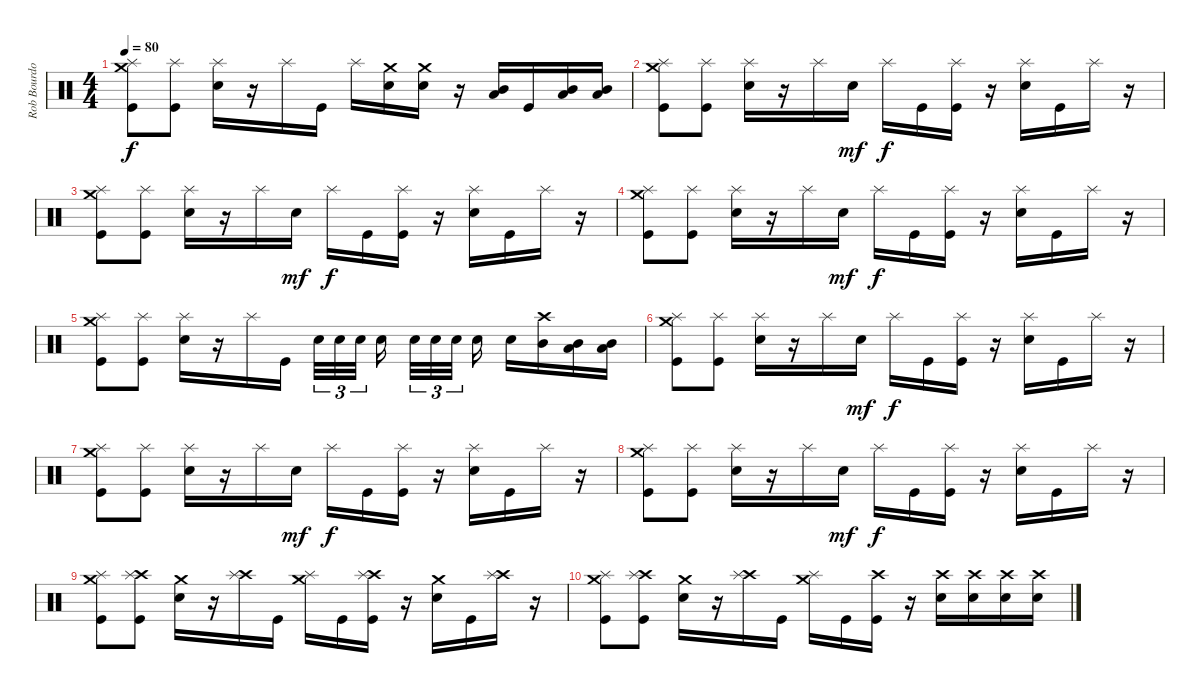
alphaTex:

\track ("Rob Bourdon" "Rob Bourdo") {instrument percussion}
\staff {score}
\articulation defaults
\ts (4 4)
\tempo 80
\clef neutral
\ks c
("Crash medium (hit)" "Splash (hit)" "Kick (hit)").8{dy f} ("Splash (hit)" "Kick (hit)").8 ("Splash (hit)" "Snare (hit) 2").16 r.16 "Splash (hit)".16 "Kick (hit)".16 "Splash (hit)".16 ("Crash medium (hit)" "Snare (hit)").16 ("Crash medium (hit)" "Snare (hit)").16 r.16 ("Mid Tom (hit)" "Low Tom (hit)").16 "Kick (hit)".16 ("Mid Tom (hit)" "Low Tom (hit)").16 ("Mid Tom (hit)" "Low Tom (hit)").16 |
("Crash medium (hit)" "Splash (hit)" "Kick (hit)").8 ("Splash (hit)" "Kick (hit)").8 ("Splash (hit)" "Snare (hit) 2").16 r.16 "Splash (hit)".16 "Snare (hit) 2".16{dy mf} "Splash (hit)".16{dy f} "Kick (hit)".16 ("Splash (hit)" "Kick (hit)").16 r.16 ("Splash (hit)" "Snare (hit) 2").16 "Kick (hit)".16 "Splash (hit)".16 r.16 |
("Crash medium (hit)" "Splash (hit)" "Kick (hit)").8 ("Splash (hit)" "Kick (hit)").8 ("Splash (hit)" "Snare (hit) 2").16 r.16 "Splash (hit)".16 "Snare (hit) 2".16{dy mf} "Splash (hit)".16{dy f} "Kick (hit)".16 ("Splash (hit)" "Kick (hit)").16 r.16 ("Splash (hit)" "Snare (hit) 2").16 "Kick (hit)".16 "Splash (hit)".16 r.16 |
("Crash medium (hit)" "Splash (hit)" "Kick (hit)").8 ("Splash (hit)" "Kick (hit)").8 ("Splash (hit)" "Snare (hit) 2").16 r.16 "Splash (hit)".16 "Snare (hit) 2".16{dy mf} "Splash (hit)".16{dy f} "Kick (hit)".16 ("Splash (hit)" "Kick (hit)").16 r.16 ("Splash (hit)" "Snare (hit) 2").16 "Kick (hit)".16 "Splash (hit)".16 r.16 |
("Crash medium (hit)" "Splash (hit)" "Kick (hit)").8 ("Splash (hit)" "Kick (hit)").8 ("Splash (hit)" "Snare (hit) 2").16 r.16 "Splash (hit)".16 "Kick (hit)".16 "Snare (hit) 2".32{tu (3 2)} "Snare (hit) 2".32{tu (3 2)} "Snare (hit) 2".32{tu (3 2)} "Snare (hit) 2".16 "Snare (hit) 2".32{tu (3 2)} "Snare (hit) 2".32{tu (3 2)} "Snare (hit) 2".32{tu (3 2)} "Snare (hit) 2".16 "Snare (hit) 2".16 ("Crash high (hit)" "Mid Tom (hit)").16 ("Mid Tom (hit)" "Low Tom (hit)").16 ("Mid Tom (hit)" "Low Tom (hit)").16 |
("Crash medium (hit)" "Splash (hit)" "Kick (hit)").8 ("Splash (hit)" "Kick (hit)").8 ("Splash (hit)" "Snare (hit) 2").16 r.16 "Splash (hit)".16 "Snare (hit) 2".16{dy mf} "Splash (hit)".16{dy f} "Kick (hit)".16 ("Splash (hit)" "Kick (hit)").16 r.16 ("Splash (hit)" "Snare (hit) 2").16 "Kick (hit)".16 "Splash (hit)".16 r.16 |
("Crash medium (hit)" "Splash (hit)" "Kick (hit)").8 ("Splash (hit)" "Kick (hit)").8 ("Splash (hit)" "Snare (hit) 2").16 r.16 "Splash (hit)".16 "Snare (hit) 2".16{dy mf} "Splash (hit)".16{dy f} "Kick (hit)".16 ("Splash (hit)" "Kick (hit)").16 r.16 ("Splash (hit)" "Snare (hit) 2").16 "Kick (hit)".16 "Splash (hit)".16 r.16 |
("Crash medium (hit)" "Splash (hit)" "Kick (hit)").8 ("Splash (hit)" "Kick (hit)").8 ("Splash (hit)" "Snare (hit) 2").16 r.16 "Splash (hit)".16 "Snare (hit) 2".16{dy mf} "Splash (hit)".16{dy f} "Kick (hit)".16 ("Splash (hit)" "Kick (hit)").16 r.16 ("Splash (hit)" "Snare (hit) 2").16 "Kick (hit)".16 "Splash (hit)".16 r.16 |
("Crash medium (hit)" "Splash (hit)" "Kick (hit)").8 ("Crash high (hit)" "Splash (hit)" "Kick (hit)").8 ("Crash medium (hit)" "Snare (hit) 2").16 r.16 ("Crash high (hit)" "Splash (hit)").16 "Kick (hit)".16 ("Crash medium (hit)" "Splash (hit)").16 "Kick (hit)".16 ("Crash high (hit)" "Splash (hit)" "Kick (hit)").16 r.16 ("Crash medium (hit)" "Snare (hit) 2").16 "Kick (hit)".16 ("Crash high (hit)" "Splash (hit)").16 r.16 |
("Crash medium (hit)" "Splash (hit)" "Kick (hit)").8 ("Crash high (hit)" "Splash (hit)" "Kick (hit)").8 ("Crash medium (hit)" "Snare (hit) 2").16 r.16 ("Crash high (hit)" "Splash (hit)").16 "Kick (hit)".16 ("Crash medium (hit)" "Splash (hit)").16 "Kick (hit)".16 ("Crash high (hit)" "Kick (hit)").16 r.16 ("Crash high (hit)" "Snare (hit) 2").16 ("Crash high (hit)" "Snare (hit) 2").16 ("Crash high (hit)" "Snare (hit) 2").16 ("Crash high (hit)" "Snare (hit) 2").16
